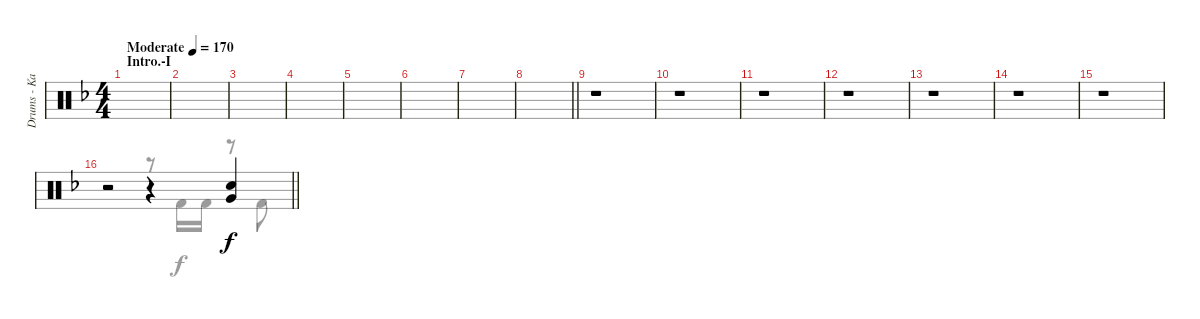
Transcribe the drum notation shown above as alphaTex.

\track ("Drums - Kai" "Drums - Ka") {instrument percussion}
\staff {score}
\articulation defaults
\voice
\ts (4 4)
\section ("" "Intro.-I")
\tempo (170 "Moderate")
\clef neutral
\ks f
|
|
|
|
|
|
|
\barLineRight lightlight
|
\section ("" "")
r.1 |
r.1 |
r.1 |
r.1 |
r.1 |
r.1 |
r.1 |
\barLineRight lightlight
r.2 r.4 ("Very Low Tom (hit)" "Snare (hit) 2").4
\voice
\clef neutral
\ottava regular
\simile none
\ks f
|
|
|
|
|
|
|
\barLineRight lightlight
|
|
|
|
|
|
|
|
\barLineRight lightlight
r.2 r.8 "Kick (hit) 2".16 "Kick (hit) 2".16 r.8 "Kick (hit) 2".8
